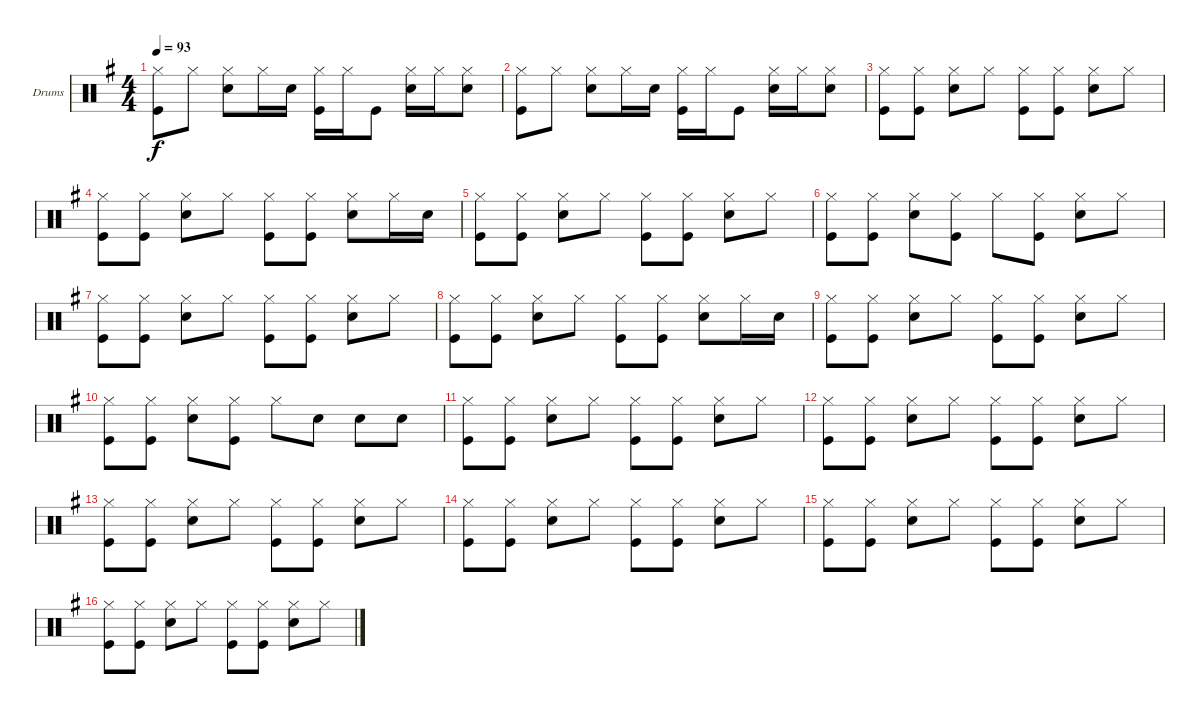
\bracketExtendMode groupsimilarinstruments
\firstSystemTrackNameOrientation horizontal
\otherSystemsTrackNameOrientation horizontal
\track ("Drumkit" "Drums") {instrument percussion}
\staff {score}
\articulation defaults
\ts (4 4)
\tempo 93
\clef neutral
\ks g
("Hi-Hat (closed)" "Kick (hit)").8{dy f} "Hi-Hat (closed)".8 ("Hi-Hat (closed)" "Snare (hit) 2").8 "Hi-Hat (closed)".16 "Snare (hit) 2".16 ("Hi-Hat (closed)" "Kick (hit)").16 "Hi-Hat (closed)".16 "Kick (hit)".8 ("Hi-Hat (closed)" "Snare (hit) 2").16 "Hi-Hat (closed)".16 ("Hi-Hat (closed)" "Snare (hit) 2").8 |
("Hi-Hat (closed)" "Kick (hit)").8 "Hi-Hat (closed)".8 ("Hi-Hat (closed)" "Snare (hit) 2").8 "Hi-Hat (closed)".16 "Snare (hit) 2".16 ("Hi-Hat (closed)" "Kick (hit)").16 "Hi-Hat (closed)".16 "Kick (hit)".8 ("Hi-Hat (closed)" "Snare (hit) 2").16 "Hi-Hat (closed)".16 ("Hi-Hat (closed)" "Snare (hit) 2").8 |
("Hi-Hat (closed)" "Kick (hit)").8 ("Hi-Hat (closed)" "Kick (hit)").8 ("Hi-Hat (closed)" "Snare (hit) 2").8 "Hi-Hat (closed)".8 ("Hi-Hat (closed)" "Kick (hit)").8 ("Hi-Hat (closed)" "Kick (hit)").8 ("Hi-Hat (closed)" "Snare (hit) 2").8 "Hi-Hat (closed)".8 |
("Hi-Hat (closed)" "Kick (hit)").8 ("Hi-Hat (closed)" "Kick (hit)").8 ("Hi-Hat (closed)" "Snare (hit) 2").8 "Hi-Hat (closed)".8 ("Hi-Hat (closed)" "Kick (hit)").8 ("Hi-Hat (closed)" "Kick (hit)").8 ("Hi-Hat (closed)" "Snare (hit) 2").8 "Hi-Hat (closed)".16 "Snare (hit) 2".16 |
("Hi-Hat (closed)" "Kick (hit)").8 ("Hi-Hat (closed)" "Kick (hit)").8 ("Hi-Hat (closed)" "Snare (hit) 2").8 "Hi-Hat (closed)".8 ("Hi-Hat (closed)" "Kick (hit)").8 ("Hi-Hat (closed)" "Kick (hit)").8 ("Hi-Hat (closed)" "Snare (hit) 2").8 "Hi-Hat (closed)".8 |
("Hi-Hat (closed)" "Kick (hit)").8 ("Hi-Hat (closed)" "Kick (hit)").8 ("Hi-Hat (closed)" "Snare (hit) 2").8 ("Hi-Hat (closed)" "Kick (hit)").8 "Hi-Hat (closed)".8 ("Hi-Hat (closed)" "Kick (hit)").8 ("Hi-Hat (closed)" "Snare (hit) 2").8 "Hi-Hat (closed)".8 |
("Hi-Hat (closed)" "Kick (hit)").8 ("Hi-Hat (closed)" "Kick (hit)").8 ("Hi-Hat (closed)" "Snare (hit) 2").8 "Hi-Hat (closed)".8 ("Hi-Hat (closed)" "Kick (hit)").8 ("Hi-Hat (closed)" "Kick (hit)").8 ("Hi-Hat (closed)" "Snare (hit) 2").8 "Hi-Hat (closed)".8 |
("Hi-Hat (closed)" "Kick (hit)").8 ("Hi-Hat (closed)" "Kick (hit)").8 ("Hi-Hat (closed)" "Snare (hit) 2").8 "Hi-Hat (closed)".8 ("Hi-Hat (closed)" "Kick (hit)").8 ("Hi-Hat (closed)" "Kick (hit)").8 ("Hi-Hat (closed)" "Snare (hit) 2").8 "Hi-Hat (closed)".16 "Snare (hit) 2".16 |
("Hi-Hat (closed)" "Kick (hit)").8 ("Hi-Hat (closed)" "Kick (hit)").8 ("Hi-Hat (closed)" "Snare (hit) 2").8 "Hi-Hat (closed)".8 ("Hi-Hat (closed)" "Kick (hit)").8 ("Hi-Hat (closed)" "Kick (hit)").8 ("Hi-Hat (closed)" "Snare (hit) 2").8 "Hi-Hat (closed)".8 |
("Hi-Hat (closed)" "Kick (hit)").8 ("Hi-Hat (closed)" "Kick (hit)").8 ("Hi-Hat (closed)" "Snare (hit) 2").8 ("Hi-Hat (closed)" "Kick (hit)").8 "Hi-Hat (closed)".8 "Snare (hit) 2".8 "Snare (hit) 2".8 "Snare (hit) 2".8 |
("Hi-Hat (closed)" "Kick (hit)").8 ("Hi-Hat (closed)" "Kick (hit)").8 ("Hi-Hat (closed)" "Snare (hit) 2").8 "Hi-Hat (closed)".8 ("Hi-Hat (closed)" "Kick (hit)").8 ("Hi-Hat (closed)" "Kick (hit)").8 ("Hi-Hat (closed)" "Snare (hit) 2").8 "Hi-Hat (closed)".8 |
("Hi-Hat (closed)" "Kick (hit)").8 ("Hi-Hat (closed)" "Kick (hit)").8 ("Hi-Hat (closed)" "Snare (hit) 2").8 "Hi-Hat (closed)".8 ("Hi-Hat (closed)" "Kick (hit)").8 ("Hi-Hat (closed)" "Kick (hit)").8 ("Hi-Hat (closed)" "Snare (hit) 2").8 "Hi-Hat (closed)".8 |
("Hi-Hat (closed)" "Kick (hit)").8 ("Hi-Hat (closed)" "Kick (hit)").8 ("Hi-Hat (closed)" "Snare (hit) 2").8 "Hi-Hat (closed)".8 ("Hi-Hat (closed)" "Kick (hit)").8 ("Hi-Hat (closed)" "Kick (hit)").8 ("Hi-Hat (closed)" "Snare (hit) 2").8 "Hi-Hat (closed)".8 |
("Hi-Hat (closed)" "Kick (hit)").8 ("Hi-Hat (closed)" "Kick (hit)").8 ("Hi-Hat (closed)" "Snare (hit) 2").8 "Hi-Hat (closed)".8 ("Hi-Hat (closed)" "Kick (hit)").8 ("Hi-Hat (closed)" "Kick (hit)").8 ("Hi-Hat (closed)" "Snare (hit) 2").8 "Hi-Hat (closed)".8 |
("Hi-Hat (closed)" "Kick (hit)").8 ("Hi-Hat (closed)" "Kick (hit)").8 ("Hi-Hat (closed)" "Snare (hit) 2").8 "Hi-Hat (closed)".8 ("Hi-Hat (closed)" "Kick (hit)").8 ("Hi-Hat (closed)" "Kick (hit)").8 ("Hi-Hat (closed)" "Snare (hit) 2").8 "Hi-Hat (closed)".8 |
("Hi-Hat (closed)" "Kick (hit)").8 ("Hi-Hat (closed)" "Kick (hit)").8 ("Hi-Hat (closed)" "Snare (hit) 2").8 "Hi-Hat (closed)".8 ("Hi-Hat (closed)" "Kick (hit)").8 ("Hi-Hat (closed)" "Kick (hit)").8 ("Hi-Hat (closed)" "Snare (hit) 2").8 "Hi-Hat (closed)".8
